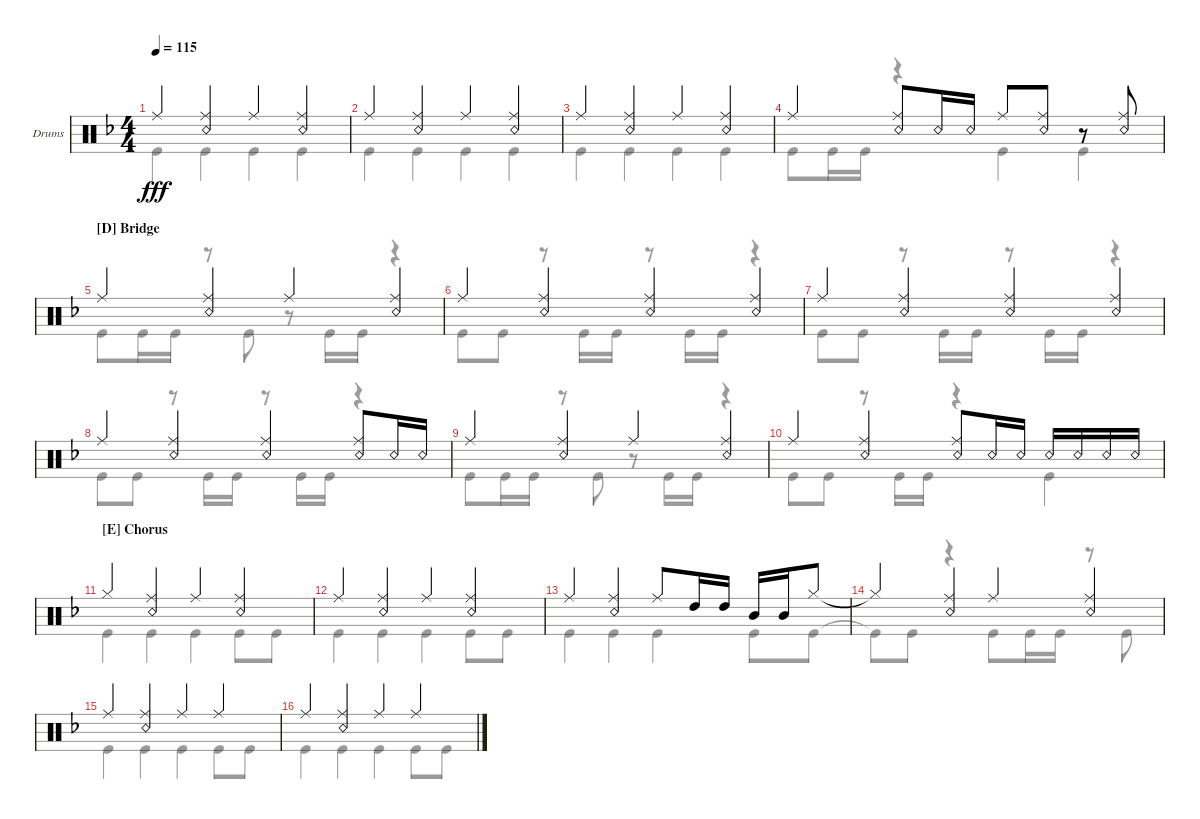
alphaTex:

\defaultSystemsLayout 4
\bracketExtendMode groupsimilarinstruments
\firstSystemTrackNameOrientation horizontal
\otherSystemsTrackNameOrientation horizontal
\track ("Randy Castillo" "Drums") {instrument percussion}
\staff {score}
\articulation defaults
\voice
\ts (4 4)
\tempo 115
\clef neutral
\ks f "Ride (middle)".4{dy fff}
("Ride (middle)" "Snare (rim shot)").4 "Ride (middle)".4 ("Ride (middle)" "Snare (rim shot)").4 |
"Ride (middle)".4 ("Ride (middle)" "Snare (rim shot)").4 "Ride (middle)".4 ("Ride (middle)" "Snare (rim shot)").4 |
"Ride (middle)".4 ("Ride (middle)" "Snare (rim shot)").4 "Ride (middle)".4 ("Ride (middle)" "Snare (rim shot)").4 |
"Ride (middle)".4 ("Ride (middle)" "Snare (rim shot)").8 "Snare (rim shot)".16 "Snare (rim shot)".16 "Ride (middle)".8 ("Ride (middle)" "Snare (rim shot)").8 r.8 ("Ride (middle)" "Snare (rim shot)").8 |
\section ("D" "Bridge")
"Ride (middle)".4 ("Ride (middle)" "Snare (rim shot)").4 "Ride (middle)".4 ("Ride (middle)" "Snare (rim shot)").4 |
"Ride (middle)".4 ("Ride (middle)" "Snare (rim shot)").4 ("Ride (middle)" "Snare (rim shot)").4 ("Ride (middle)" "Snare (rim shot)").4 |
"Ride (middle)".4 ("Ride (middle)" "Snare (rim shot)").4 ("Ride (middle)" "Snare (rim shot)").4 ("Ride (middle)" "Snare (rim shot)").4 |
"Ride (middle)".4 ("Ride (middle)" "Snare (rim shot)").4 ("Ride (middle)" "Snare (rim shot)").4 ("Ride (middle)" "Snare (rim shot)").8 "Snare (rim shot)".16 "Snare (rim shot)".16 |
"Ride (middle)".4 ("Ride (middle)" "Snare (rim shot)").4 "Ride (middle)".4 ("Ride (middle)" "Snare (rim shot)").4 |
"Ride (middle)".4 ("Ride (middle)" "Snare (rim shot)").4 ("Snare (rim shot)" "Ride (middle)").8 "Snare (rim shot)".16 "Snare (rim shot)".16 "Snare (rim shot)".16 "Snare (rim shot)".16 "Snare (rim shot)".16 "Snare (rim shot)".16 |
\section ("E" "Chorus")
"Hi-Hat (closed)".4 ("Ride (middle)" "Snare (rim shot)").4 "Ride (middle)".4 ("Ride (middle)" "Snare (rim shot)").4 |
"Ride (middle)".4 ("Ride (middle)" "Snare (rim shot)").4 "Ride (middle)".4 ("Ride (middle)" "Snare (rim shot)").4 |
"Ride (middle)".4 ("Ride (middle)" "Snare (rim shot)").4 "Ride (middle)".8 "High Tom (hit)".16 "High Tom (hit)".16 "Mid Tom (hit)".16 "Mid Tom (hit)".16 "Hi-Hat (closed)".8 |
"Hi-Hat (closed)"{t}.4 ("Ride (middle)" "Snare (rim shot)").4 "Ride (middle)".4 ("Ride (middle)" "Snare (rim shot)").4 |
"Ride (middle)".4 ("Ride (middle)" "Snare (rim shot)").4 "Ride (middle)".4 "Ride (middle)".4 |
"Ride (middle)".4 ("Ride (middle)" "Snare (rim shot)").4 "Ride (middle)".4 "Ride (middle)".4
\voice
\clef neutral
\ottava regular
\simile none
\ks f "Kick (hit)".4{dy fff} "Kick (hit)".4 "Kick (hit)".4 "Kick (hit)".4
|
"Kick (hit)".4 "Kick (hit)".4 "Kick (hit)".4 "Kick (hit)".4 |
"Kick (hit)".4 "Kick (hit)".4 "Kick (hit)".4 "Kick (hit)".4 |
"Kick (hit)".8 "Kick (hit)".16 "Kick (hit)".16 r.4 "Kick (hit)".4 "Kick (hit)".4 |
"Kick (hit)".8 "Kick (hit)".16 "Kick (hit)".16 r.8 "Kick (hit)".8 r.8 "Kick (hit)".16 "Kick (hit)".16 r.4 |
"Kick (hit)".8 "Kick (hit)".8 r.8 "Kick (hit)".16 "Kick (hit)".16 r.8 "Kick (hit)".16 "Kick (hit)".16 r.4 |
"Kick (hit)".8 "Kick (hit)".8 r.8 "Kick (hit)".16 "Kick (hit)".16 r.8 "Kick (hit)".16 "Kick (hit)".16 r.4 |
"Kick (hit)".8 "Kick (hit)".8 r.8 "Kick (hit)".16 "Kick (hit)".16 r.8 "Kick (hit)".16 "Kick (hit)".16 r.4 |
"Kick (hit)".8 "Kick (hit)".16 "Kick (hit)".16 r.8 "Kick (hit)".8 r.8 "Kick (hit)".16 "Kick (hit)".16 r.4 |
"Kick (hit)".8 "Kick (hit)".8 r.8 "Kick (hit)".16 "Kick (hit)".16 r.4 "Kick (hit)".4 |
"Kick (hit)".4 "Kick (hit)".4 "Kick (hit)".4 "Kick (hit)".8 "Kick (hit)".8 |
"Kick (hit)".4 "Kick (hit)".4 "Kick (hit)".4 "Kick (hit)".8 "Kick (hit)".8 |
"Kick (hit)".4 "Kick (hit)".4 "Kick (hit)".4 "Kick (hit)".8 "Kick (hit)".8 |
"Kick (hit)"{t}.8 "Kick (hit)".8 r.4 "Kick (hit)".8 "Kick (hit)".16 "Kick (hit)".16 r.8 "Kick (hit)".8 |
"Kick (hit)".4 "Kick (hit)".4 "Kick (hit)".4 "Kick (hit)".8 "Kick (hit)".8 |
"Kick (hit)".4 "Kick (hit)".4 "Kick (hit)".4 "Kick (hit)".8 "Kick (hit)".8
